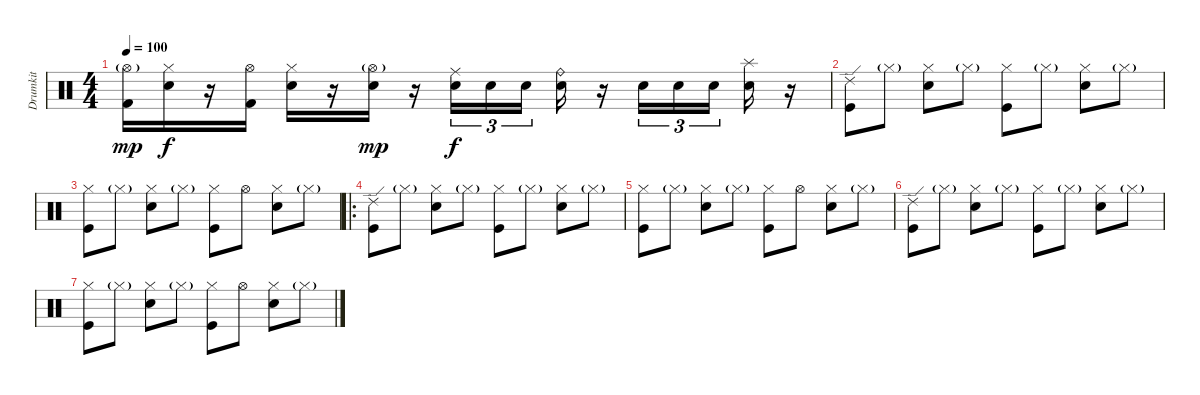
\track ("Drumkit" "Drumkit") {instrument percussion}
\staff {score}
\articulation defaults
\ts (4 4)
\tempo 100
\clef neutral
\ks c
("Kick (hit) 2" "Hi-Hat (open)"{g}).16{dy mp} ("Electric Snare (hit)" "Hi-Hat (closed)").16{dy f} r.16 ("Kick (hit) 2" "Hi-Hat (open)").16 ("Electric Snare (hit)" "Hi-Hat (closed)").16 r.16 ("Electric Snare (hit)" "Hi-Hat (open)"{g}).16{dy mp} r.16 ("Ride (middle)" "Electric Snare (hit)").16{tu (3 2) dy f} "Electric Snare (hit)".16{tu (3 2)} "Electric Snare (hit)".16{tu (3 2) beam splitsecondary} ("Ride (bell)" "Electric Snare (hit)").16 r.16 "Electric Snare (hit)".16{tu (3 2)} "Electric Snare (hit)".16{tu (3 2)} "Electric Snare (hit)".16{tu (3 2) beam splitsecondary} ("Splash (hit)" "Electric Snare (hit)").16 r.16 |
("Ride (edge) 2" "Kick (hit)").8 "Hi-Hat (closed)"{g}.8 ("Snare (hit) 2" "Hi-Hat (closed)").8 "Hi-Hat (closed)"{g}.8 ("Kick (hit)" "Hi-Hat (closed)").8 "Hi-Hat (closed)"{g}.8 ("Snare (hit) 2" "Hi-Hat (closed)").8 "Hi-Hat (closed)"{g}.8 |
("Hi-Hat (closed)" "Kick (hit)").8 "Hi-Hat (closed)"{g}.8 ("Hi-Hat (closed)" "Snare (hit) 2").8 "Hi-Hat (closed)"{g}.8 ("Hi-Hat (closed)" "Kick (hit)").8 "Hi-Hat (open)".8 ("Hi-Hat (closed)" "Snare (hit) 2").8 "Hi-Hat (closed)"{g}.8 |
\ro
("Ride (edge) 2" "Kick (hit)").8 "Hi-Hat (closed)"{g}.8 ("Snare (hit) 2" "Hi-Hat (closed)").8 "Hi-Hat (closed)"{g}.8 ("Kick (hit)" "Hi-Hat (closed)").8 "Hi-Hat (closed)"{g}.8 ("Snare (hit) 2" "Hi-Hat (closed)").8 "Hi-Hat (closed)"{g}.8 |
("Hi-Hat (closed)" "Kick (hit)").8 "Hi-Hat (closed)"{g}.8 ("Hi-Hat (closed)" "Snare (hit) 2").8 "Hi-Hat (closed)"{g}.8 ("Hi-Hat (closed)" "Kick (hit)").8 "Hi-Hat (open)".8 ("Hi-Hat (closed)" "Snare (hit) 2").8 "Hi-Hat (closed)"{g}.8 |
("Ride (edge) 2" "Kick (hit)").8 "Hi-Hat (closed)"{g}.8 ("Snare (hit) 2" "Hi-Hat (closed)").8 "Hi-Hat (closed)"{g}.8 ("Kick (hit)" "Hi-Hat (closed)").8 "Hi-Hat (closed)"{g}.8 ("Snare (hit) 2" "Hi-Hat (closed)").8 "Hi-Hat (closed)"{g}.8 |
("Hi-Hat (closed)" "Kick (hit)").8 "Hi-Hat (closed)"{g}.8 ("Hi-Hat (closed)" "Snare (hit) 2").8 "Hi-Hat (closed)"{g}.8 ("Hi-Hat (closed)" "Kick (hit)").8 "Hi-Hat (open)".8 ("Hi-Hat (closed)" "Snare (hit) 2").8 "Hi-Hat (closed)"{g}.8
